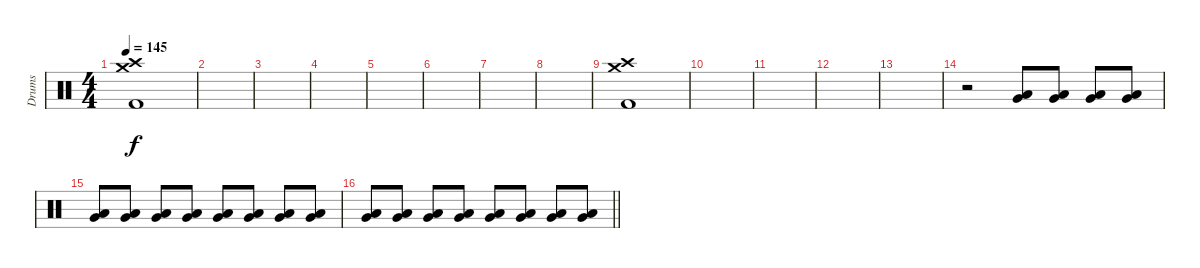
\track ("Drums" "Drums") {instrument percussion}
\staff {score}
\articulation defaults
\ts (4 4)
\tempo 145
\clef neutral
\ks c
("Crash medium (hit)" "Crash high (hit)" "Kick (hit) 2").1{dy f} |
|
|
|
|
|
|
|
("Crash medium (hit)" "Crash high (hit)" "Kick (hit) 2").1 |
|
|
|
|
r.2 ("Low Floor Tom (hit)" "Very Low Tom (hit)").8 ("Low Floor Tom (hit)" "Very Low Tom (hit)").8 ("Low Floor Tom (hit)" "Very Low Tom (hit)").8 ("Low Floor Tom (hit)" "Very Low Tom (hit)").8 |
("Low Floor Tom (hit)" "Very Low Tom (hit)").8 ("Low Floor Tom (hit)" "Very Low Tom (hit)").8 ("Low Floor Tom (hit)" "Very Low Tom (hit)").8 ("Low Floor Tom (hit)" "Very Low Tom (hit)").8 ("Low Floor Tom (hit)" "Very Low Tom (hit)").8 ("Low Floor Tom (hit)" "Very Low Tom (hit)").8 ("Low Floor Tom (hit)" "Very Low Tom (hit)").8 ("Low Floor Tom (hit)" "Very Low Tom (hit)").8 |
\barLineRight lightlight
("Low Floor Tom (hit)" "Very Low Tom (hit)").8 ("Low Floor Tom (hit)" "Very Low Tom (hit)").8 ("Low Floor Tom (hit)" "Very Low Tom (hit)").8 ("Low Floor Tom (hit)" "Very Low Tom (hit)").8 ("Low Floor Tom (hit)" "Very Low Tom (hit)").8 ("Low Floor Tom (hit)" "Very Low Tom (hit)").8 ("Low Floor Tom (hit)" "Very Low Tom (hit)").8 ("Low Floor Tom (hit)" "Very Low Tom (hit)").8
